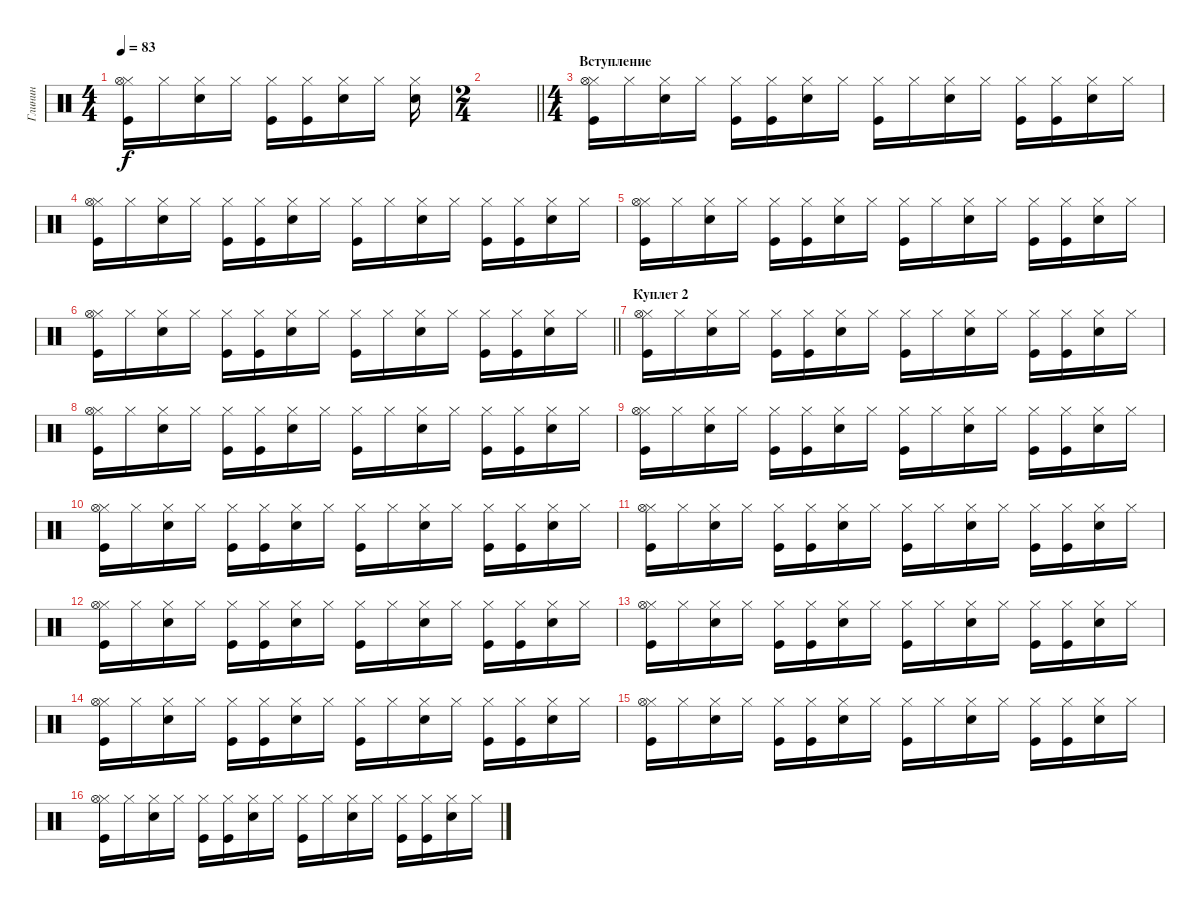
\track ("Глинин" "Глинин") {instrument percussion}
\staff {score}
\articulation defaults
\ts (4 4)
\tempo 83
\clef neutral
\ks c
("Hi-Hat (closed)" "Kick (hit)" "Hi-Hat (open)").16{dy f} "Hi-Hat (closed)".16 ("Hi-Hat (closed)" "Snare (hit) 2").16 "Hi-Hat (closed)".16 ("Hi-Hat (closed)" "Kick (hit)").16 ("Hi-Hat (closed)" "Kick (hit)").16 ("Hi-Hat (closed)" "Snare (hit) 2").16 "Hi-Hat (closed)".16 ("Hi-Hat (closed)" "Snare (hit) 2").16 |
\ts (2 4)
\barLineRight lightlight
|
\ts (4 4)
\section ("" "Вступление")
("Hi-Hat (closed)" "Kick (hit)" "Hi-Hat (open)").16 "Hi-Hat (closed)".16 ("Hi-Hat (closed)" "Snare (hit) 2").16 "Hi-Hat (closed)".16 ("Hi-Hat (closed)" "Kick (hit)").16 ("Hi-Hat (closed)" "Kick (hit)").16 ("Hi-Hat (closed)" "Snare (hit) 2").16 "Hi-Hat (closed)".16 ("Hi-Hat (closed)" "Kick (hit)").16 "Hi-Hat (closed)".16 ("Hi-Hat (closed)" "Snare (hit) 2").16 "Hi-Hat (closed)".16 ("Hi-Hat (closed)" "Kick (hit)").16 ("Hi-Hat (closed)" "Kick (hit)").16 ("Hi-Hat (closed)" "Snare (hit) 2").16 "Hi-Hat (closed)".16 |
("Hi-Hat (closed)" "Kick (hit)" "Hi-Hat (open)").16 "Hi-Hat (closed)".16 ("Hi-Hat (closed)" "Snare (hit) 2").16 "Hi-Hat (closed)".16 ("Hi-Hat (closed)" "Kick (hit)").16 ("Hi-Hat (closed)" "Kick (hit)").16 ("Hi-Hat (closed)" "Snare (hit) 2").16 "Hi-Hat (closed)".16 ("Hi-Hat (closed)" "Kick (hit)").16 "Hi-Hat (closed)".16 ("Hi-Hat (closed)" "Snare (hit) 2").16 "Hi-Hat (closed)".16 ("Hi-Hat (closed)" "Kick (hit)").16 ("Hi-Hat (closed)" "Kick (hit)").16 ("Hi-Hat (closed)" "Snare (hit) 2").16 "Hi-Hat (closed)".16 |
("Hi-Hat (closed)" "Kick (hit)" "Hi-Hat (open)").16 "Hi-Hat (closed)".16 ("Hi-Hat (closed)" "Snare (hit) 2").16 "Hi-Hat (closed)".16 ("Hi-Hat (closed)" "Kick (hit)").16 ("Hi-Hat (closed)" "Kick (hit)").16 ("Hi-Hat (closed)" "Snare (hit) 2").16 "Hi-Hat (closed)".16 ("Hi-Hat (closed)" "Kick (hit)").16 "Hi-Hat (closed)".16 ("Hi-Hat (closed)" "Snare (hit) 2").16 "Hi-Hat (closed)".16 ("Hi-Hat (closed)" "Kick (hit)").16 ("Hi-Hat (closed)" "Kick (hit)").16 ("Hi-Hat (closed)" "Snare (hit) 2").16 "Hi-Hat (closed)".16 |
\barLineRight lightlight
("Hi-Hat (closed)" "Kick (hit)" "Hi-Hat (open)").16 "Hi-Hat (closed)".16 ("Hi-Hat (closed)" "Snare (hit) 2").16 "Hi-Hat (closed)".16 ("Hi-Hat (closed)" "Kick (hit)").16 ("Hi-Hat (closed)" "Kick (hit)").16 ("Hi-Hat (closed)" "Snare (hit) 2").16 "Hi-Hat (closed)".16 ("Hi-Hat (closed)" "Kick (hit)").16 "Hi-Hat (closed)".16 ("Hi-Hat (closed)" "Snare (hit) 2").16 "Hi-Hat (closed)".16 ("Hi-Hat (closed)" "Kick (hit)").16 ("Hi-Hat (closed)" "Kick (hit)").16 ("Hi-Hat (closed)" "Snare (hit) 2").16 "Hi-Hat (closed)".16 |
\section ("" "Куплет 2")
("Hi-Hat (closed)" "Kick (hit)" "Hi-Hat (open)").16 "Hi-Hat (closed)".16 ("Hi-Hat (closed)" "Snare (hit) 2").16 "Hi-Hat (closed)".16 ("Hi-Hat (closed)" "Kick (hit)").16 ("Hi-Hat (closed)" "Kick (hit)").16 ("Hi-Hat (closed)" "Snare (hit) 2").16 "Hi-Hat (closed)".16 ("Hi-Hat (closed)" "Kick (hit)").16 "Hi-Hat (closed)".16 ("Hi-Hat (closed)" "Snare (hit) 2").16 "Hi-Hat (closed)".16 ("Hi-Hat (closed)" "Kick (hit)").16 ("Hi-Hat (closed)" "Kick (hit)").16 ("Hi-Hat (closed)" "Snare (hit) 2").16 "Hi-Hat (closed)".16 |
("Hi-Hat (closed)" "Kick (hit)" "Hi-Hat (open)").16 "Hi-Hat (closed)".16 ("Hi-Hat (closed)" "Snare (hit) 2").16 "Hi-Hat (closed)".16 ("Hi-Hat (closed)" "Kick (hit)").16 ("Hi-Hat (closed)" "Kick (hit)").16 ("Hi-Hat (closed)" "Snare (hit) 2").16 "Hi-Hat (closed)".16 ("Hi-Hat (closed)" "Kick (hit)").16 "Hi-Hat (closed)".16 ("Hi-Hat (closed)" "Snare (hit) 2").16 "Hi-Hat (closed)".16 ("Hi-Hat (closed)" "Kick (hit)").16 ("Hi-Hat (closed)" "Kick (hit)").16 ("Hi-Hat (closed)" "Snare (hit) 2").16 "Hi-Hat (closed)".16 |
("Hi-Hat (closed)" "Kick (hit)" "Hi-Hat (open)").16 "Hi-Hat (closed)".16 ("Hi-Hat (closed)" "Snare (hit) 2").16 "Hi-Hat (closed)".16 ("Hi-Hat (closed)" "Kick (hit)").16 ("Hi-Hat (closed)" "Kick (hit)").16 ("Hi-Hat (closed)" "Snare (hit) 2").16 "Hi-Hat (closed)".16 ("Hi-Hat (closed)" "Kick (hit)").16 "Hi-Hat (closed)".16 ("Hi-Hat (closed)" "Snare (hit) 2").16 "Hi-Hat (closed)".16 ("Hi-Hat (closed)" "Kick (hit)").16 ("Hi-Hat (closed)" "Kick (hit)").16 ("Hi-Hat (closed)" "Snare (hit) 2").16 "Hi-Hat (closed)".16 |
("Hi-Hat (closed)" "Kick (hit)" "Hi-Hat (open)").16 "Hi-Hat (closed)".16 ("Hi-Hat (closed)" "Snare (hit) 2").16 "Hi-Hat (closed)".16 ("Hi-Hat (closed)" "Kick (hit)").16 ("Hi-Hat (closed)" "Kick (hit)").16 ("Hi-Hat (closed)" "Snare (hit) 2").16 "Hi-Hat (closed)".16 ("Hi-Hat (closed)" "Kick (hit)").16 "Hi-Hat (closed)".16 ("Hi-Hat (closed)" "Snare (hit) 2").16 "Hi-Hat (closed)".16 ("Hi-Hat (closed)" "Kick (hit)").16 ("Hi-Hat (closed)" "Kick (hit)").16 ("Hi-Hat (closed)" "Snare (hit) 2").16 "Hi-Hat (closed)".16 |
("Hi-Hat (closed)" "Kick (hit)" "Hi-Hat (open)").16 "Hi-Hat (closed)".16 ("Hi-Hat (closed)" "Snare (hit) 2").16 "Hi-Hat (closed)".16 ("Hi-Hat (closed)" "Kick (hit)").16 ("Hi-Hat (closed)" "Kick (hit)").16 ("Hi-Hat (closed)" "Snare (hit) 2").16 "Hi-Hat (closed)".16 ("Hi-Hat (closed)" "Kick (hit)").16 "Hi-Hat (closed)".16 ("Hi-Hat (closed)" "Snare (hit) 2").16 "Hi-Hat (closed)".16 ("Hi-Hat (closed)" "Kick (hit)").16 ("Hi-Hat (closed)" "Kick (hit)").16 ("Hi-Hat (closed)" "Snare (hit) 2").16 "Hi-Hat (closed)".16 |
("Hi-Hat (closed)" "Kick (hit)" "Hi-Hat (open)").16 "Hi-Hat (closed)".16 ("Hi-Hat (closed)" "Snare (hit) 2").16 "Hi-Hat (closed)".16 ("Hi-Hat (closed)" "Kick (hit)").16 ("Hi-Hat (closed)" "Kick (hit)").16 ("Hi-Hat (closed)" "Snare (hit) 2").16 "Hi-Hat (closed)".16 ("Hi-Hat (closed)" "Kick (hit)").16 "Hi-Hat (closed)".16 ("Hi-Hat (closed)" "Snare (hit) 2").16 "Hi-Hat (closed)".16 ("Hi-Hat (closed)" "Kick (hit)").16 ("Hi-Hat (closed)" "Kick (hit)").16 ("Hi-Hat (closed)" "Snare (hit) 2").16 "Hi-Hat (closed)".16 |
("Hi-Hat (closed)" "Kick (hit)" "Hi-Hat (open)").16 "Hi-Hat (closed)".16 ("Hi-Hat (closed)" "Snare (hit) 2").16 "Hi-Hat (closed)".16 ("Hi-Hat (closed)" "Kick (hit)").16 ("Hi-Hat (closed)" "Kick (hit)").16 ("Hi-Hat (closed)" "Snare (hit) 2").16 "Hi-Hat (closed)".16 ("Hi-Hat (closed)" "Kick (hit)").16 "Hi-Hat (closed)".16 ("Hi-Hat (closed)" "Snare (hit) 2").16 "Hi-Hat (closed)".16 ("Hi-Hat (closed)" "Kick (hit)").16 ("Hi-Hat (closed)" "Kick (hit)").16 ("Hi-Hat (closed)" "Snare (hit) 2").16 "Hi-Hat (closed)".16 |
("Hi-Hat (closed)" "Kick (hit)" "Hi-Hat (open)").16 "Hi-Hat (closed)".16 ("Hi-Hat (closed)" "Snare (hit) 2").16 "Hi-Hat (closed)".16 ("Hi-Hat (closed)" "Kick (hit)").16 ("Hi-Hat (closed)" "Kick (hit)").16 ("Hi-Hat (closed)" "Snare (hit) 2").16 "Hi-Hat (closed)".16 ("Hi-Hat (closed)" "Kick (hit)").16 "Hi-Hat (closed)".16 ("Hi-Hat (closed)" "Snare (hit) 2").16 "Hi-Hat (closed)".16 ("Hi-Hat (closed)" "Kick (hit)").16 ("Hi-Hat (closed)" "Kick (hit)").16 ("Hi-Hat (closed)" "Snare (hit) 2").16 "Hi-Hat (closed)".16 |
("Hi-Hat (closed)" "Kick (hit)" "Hi-Hat (open)").16 "Hi-Hat (closed)".16 ("Hi-Hat (closed)" "Snare (hit) 2").16 "Hi-Hat (closed)".16 ("Hi-Hat (closed)" "Kick (hit)").16 ("Hi-Hat (closed)" "Kick (hit)").16 ("Hi-Hat (closed)" "Snare (hit) 2").16 "Hi-Hat (closed)".16 ("Hi-Hat (closed)" "Kick (hit)").16 "Hi-Hat (closed)".16 ("Hi-Hat (closed)" "Snare (hit) 2").16 "Hi-Hat (closed)".16 ("Hi-Hat (closed)" "Kick (hit)").16 ("Hi-Hat (closed)" "Kick (hit)").16 ("Hi-Hat (closed)" "Snare (hit) 2").16 "Hi-Hat (closed)".16 |
("Hi-Hat (closed)" "Kick (hit)" "Hi-Hat (open)").16 "Hi-Hat (closed)".16 ("Hi-Hat (closed)" "Snare (hit) 2").16 "Hi-Hat (closed)".16 ("Hi-Hat (closed)" "Kick (hit)").16 ("Hi-Hat (closed)" "Kick (hit)").16 ("Hi-Hat (closed)" "Snare (hit) 2").16 "Hi-Hat (closed)".16 ("Hi-Hat (closed)" "Kick (hit)").16 "Hi-Hat (closed)".16 ("Hi-Hat (closed)" "Snare (hit) 2").16 "Hi-Hat (closed)".16 ("Hi-Hat (closed)" "Kick (hit)").16 ("Hi-Hat (closed)" "Kick (hit)").16 ("Hi-Hat (closed)" "Snare (hit) 2").16 "Hi-Hat (closed)".16
